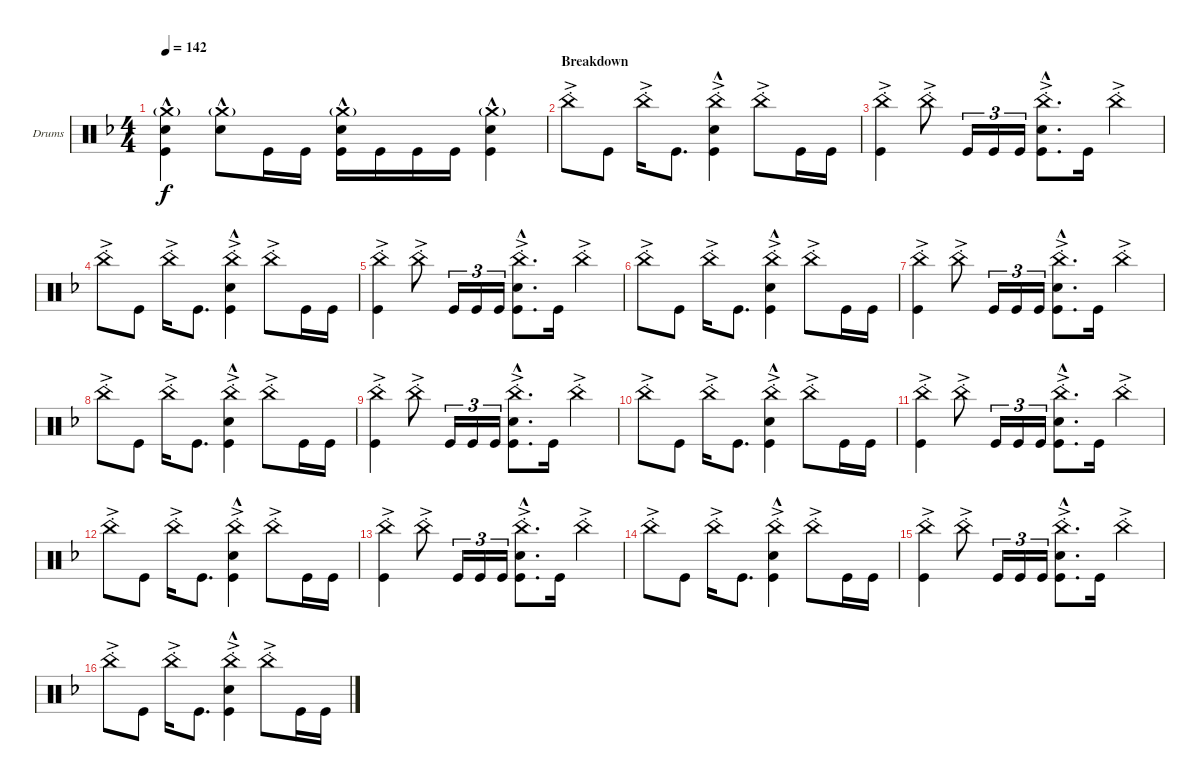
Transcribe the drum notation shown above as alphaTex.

\bracketExtendMode groupsimilarinstruments
\firstSystemTrackNameOrientation horizontal
\otherSystemsTrackNameOrientation horizontal
\track ("Drumkit" "Drums") {instrument percussion}
\staff {score}
\articulation defaults
\ts (4 4)
\tempo 142
\clef neutral
\scale
0.333333
\ks dminor
("Kick (hit)" "Snare (hit) 2"{hac} "Crash medium (hit)"{g}).4{dy f} ("Snare (hit) 2"{hac} "Crash medium (hit)"{g}).8 "Kick (hit)".16 "Kick (hit)".16 ("Snare (hit) 2"{hac} "Kick (hit)" "Crash medium (hit)"{g}).16 "Kick (hit)".16 "Kick (hit)".16 "Kick (hit)".16 ("Kick (hit)" "Snare (hit) 2"{hac} "Crash medium (hit)"{g}).4 |
\section ("" "Breakdown")
\scale
0.333333 "China (hit)"{ac st}.8 "Kick (hit)".8 "China (hit)"{ac st}.16 "Kick (hit)".8{d} ("China (hit)"{ac st} "Kick (hit)" "Snare (hit) 2"{hac}).4 "China (hit)"{ac st}.8 "Kick (hit)".16 "Kick (hit)".16 |
\scale
0.333333 ("Kick (hit)" "China (hit)"{ac st}).4 "China (hit)"{ac st}.8 "Kick (hit)".16{tu (3 2)} "Kick (hit)".16{tu (3 2)} "Kick (hit)".16{tu (3 2)} ("Kick (hit)" "China (hit)"{ac st} "Snare (hit) 2"{hac}).8{d} "Kick (hit)".16 "China (hit)"{ac st}.4 |
\scale
0.333333 "China (hit)"{ac st}.8 "Kick (hit)".8 "China (hit)"{ac st}.16 "Kick (hit)".8{d} ("China (hit)"{ac st} "Kick (hit)" "Snare (hit) 2"{hac}).4 "China (hit)"{ac st}.8 "Kick (hit)".16 "Kick (hit)".16 |
\scale
0.333333 ("Kick (hit)" "China (hit)"{ac st}).4 "China (hit)"{ac st}.8 "Kick (hit)".16{tu (3 2)} "Kick (hit)".16{tu (3 2)} "Kick (hit)".16{tu (3 2)} ("Kick (hit)" "China (hit)"{ac st} "Snare (hit) 2"{hac}).8{d} "Kick (hit)".16 "China (hit)"{ac st}.4 |
\scale
0.333333 "China (hit)"{ac st}.8 "Kick (hit)".8 "China (hit)"{ac st}.16 "Kick (hit)".8{d} ("China (hit)"{ac st} "Kick (hit)" "Snare (hit) 2"{hac}).4 "China (hit)"{ac st}.8 "Kick (hit)".16 "Kick (hit)".16 |
\scale
0.333333 ("Kick (hit)" "China (hit)"{ac st}).4 "China (hit)"{ac st}.8 "Kick (hit)".16{tu (3 2)} "Kick (hit)".16{tu (3 2)} "Kick (hit)".16{tu (3 2)} ("Kick (hit)" "China (hit)"{ac st} "Snare (hit) 2"{hac}).8{d} "Kick (hit)".16 "China (hit)"{ac st}.4 |
\scale
0.333333 "China (hit)"{ac st}.8 "Kick (hit)".8 "China (hit)"{ac st}.16 "Kick (hit)".8{d} ("China (hit)"{ac st} "Kick (hit)" "Snare (hit) 2"{hac}).4 "China (hit)"{ac st}.8 "Kick (hit)".16 "Kick (hit)".16 |
\scale
0.333333 ("Kick (hit)" "China (hit)"{ac st}).4 "China (hit)"{ac st}.8 "Kick (hit)".16{tu (3 2)} "Kick (hit)".16{tu (3 2)} "Kick (hit)".16{tu (3 2)} ("Kick (hit)" "China (hit)"{ac st} "Snare (hit) 2"{hac}).8{d} "Kick (hit)".16 "China (hit)"{ac st}.4 |
\scale
0.333333 "China (hit)"{ac st}.8 "Kick (hit)".8 "China (hit)"{ac st}.16 "Kick (hit)".8{d} ("China (hit)"{ac st} "Kick (hit)" "Snare (hit) 2"{hac}).4 "China (hit)"{ac st}.8 "Kick (hit)".16 "Kick (hit)".16 |
\scale
0.333333 ("Kick (hit)" "China (hit)"{ac st}).4 "China (hit)"{ac st}.8 "Kick (hit)".16{tu (3 2)} "Kick (hit)".16{tu (3 2)} "Kick (hit)".16{tu (3 2)} ("Kick (hit)" "China (hit)"{ac st} "Snare (hit) 2"{hac}).8{d} "Kick (hit)".16 "China (hit)"{ac st}.4 |
\scale
0.333333 "China (hit)"{ac st}.8 "Kick (hit)".8 "China (hit)"{ac st}.16 "Kick (hit)".8{d} ("China (hit)"{ac st} "Kick (hit)" "Snare (hit) 2"{hac}).4 "China (hit)"{ac st}.8 "Kick (hit)".16 "Kick (hit)".16 |
\scale
0.333333 ("Kick (hit)" "China (hit)"{ac st}).4 "China (hit)"{ac st}.8 "Kick (hit)".16{tu (3 2)} "Kick (hit)".16{tu (3 2)} "Kick (hit)".16{tu (3 2)} ("Kick (hit)" "China (hit)"{ac st} "Snare (hit) 2"{hac}).8{d} "Kick (hit)".16 "China (hit)"{ac st}.4 |
\scale
0.333333 "China (hit)"{ac st}.8 "Kick (hit)".8 "China (hit)"{ac st}.16 "Kick (hit)".8{d} ("China (hit)"{ac st} "Kick (hit)" "Snare (hit) 2"{hac}).4 "China (hit)"{ac st}.8 "Kick (hit)".16 "Kick (hit)".16 |
\scale
0.333333 ("Kick (hit)" "China (hit)"{ac st}).4 "China (hit)"{ac st}.8 "Kick (hit)".16{tu (3 2)} "Kick (hit)".16{tu (3 2)} "Kick (hit)".16{tu (3 2)} ("Kick (hit)" "China (hit)"{ac st} "Snare (hit) 2"{hac}).8{d} "Kick (hit)".16 "China (hit)"{ac st}.4 |
\scale
0.333333 "China (hit)"{ac st}.8 "Kick (hit)".8 "China (hit)"{ac st}.16 "Kick (hit)".8{d} ("China (hit)"{ac st} "Kick (hit)" "Snare (hit) 2"{hac}).4 "China (hit)"{ac st}.8 "Kick (hit)".16 "Kick (hit)".16
